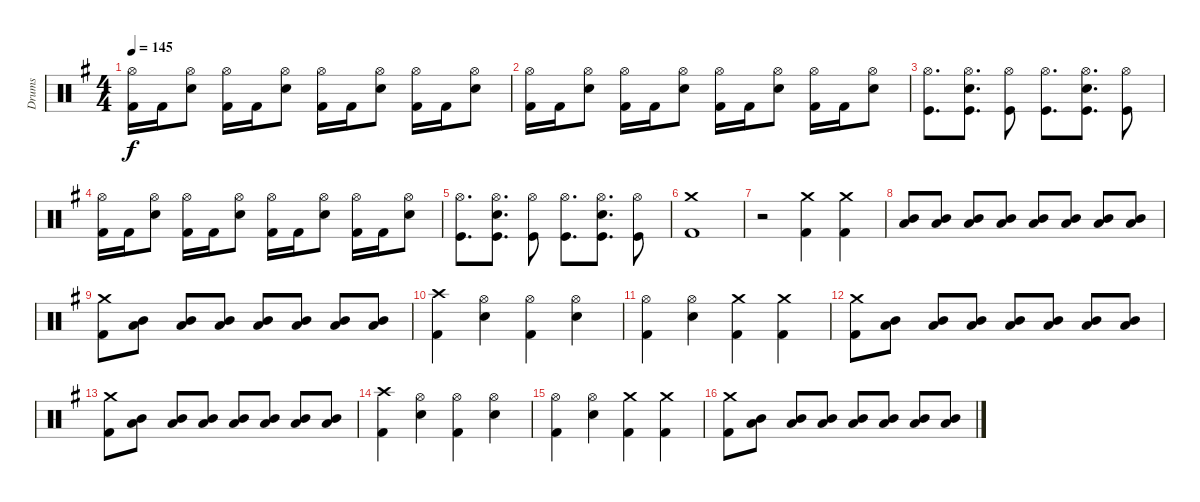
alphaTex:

\track ("Drums" "Drums") {instrument percussion}
\staff {score}
\articulation defaults
\ts (4 4)
\tempo 145
\clef neutral
\ks eminor
("Hi-Hat (open)" "Kick (hit) 2").16{dy f} "Kick (hit) 2".16 ("Hi-Hat (open)" "Electric Snare (hit)").8 ("Hi-Hat (open)" "Kick (hit) 2").16 "Kick (hit) 2".16 ("Electric Snare (hit)" "Hi-Hat (open)").8 ("Kick (hit) 2" "Hi-Hat (open)").16 "Kick (hit) 2".16 ("Hi-Hat (open)" "Electric Snare (hit)").8 ("Hi-Hat (open)" "Kick (hit) 2").16 "Kick (hit) 2".16 ("Hi-Hat (open)" "Electric Snare (hit)").8 |
("Hi-Hat (open)" "Kick (hit) 2").16 "Kick (hit) 2".16 ("Hi-Hat (open)" "Electric Snare (hit)").8 ("Hi-Hat (open)" "Kick (hit) 2").16 "Kick (hit) 2".16 ("Electric Snare (hit)" "Hi-Hat (open)").8 ("Kick (hit) 2" "Hi-Hat (open)").16 "Kick (hit) 2".16 ("Hi-Hat (open)" "Electric Snare (hit)").8 ("Hi-Hat (open)" "Kick (hit) 2").16 "Kick (hit) 2".16 ("Hi-Hat (open)" "Electric Snare (hit)").8 |
("Kick (hit)" "Hi-Hat (open)").8{d} ("Kick (hit)" "Snare (hit) 2" "Hi-Hat (open)").8{d} ("Kick (hit)" "Hi-Hat (open)").8 ("Kick (hit)" "Hi-Hat (open)").8{d} ("Kick (hit)" "Hi-Hat (open)" "Snare (hit) 2").8{d} ("Kick (hit)" "Hi-Hat (open)").8 |
("Hi-Hat (open)" "Kick (hit) 2").16 "Kick (hit) 2".16 ("Hi-Hat (open)" "Electric Snare (hit)").8 ("Hi-Hat (open)" "Kick (hit) 2").16 "Kick (hit) 2".16 ("Electric Snare (hit)" "Hi-Hat (open)").8 ("Kick (hit) 2" "Hi-Hat (open)").16 "Kick (hit) 2".16 ("Hi-Hat (open)" "Electric Snare (hit)").8 ("Hi-Hat (open)" "Kick (hit) 2").16 "Kick (hit) 2".16 ("Hi-Hat (open)" "Electric Snare (hit)").8 |
("Kick (hit)" "Hi-Hat (open)").8{d} ("Kick (hit)" "Snare (hit) 2" "Hi-Hat (open)").8{d} ("Kick (hit)" "Hi-Hat (open)").8 ("Kick (hit)" "Hi-Hat (open)").8{d} ("Kick (hit)" "Hi-Hat (open)" "Snare (hit) 2").8{d} ("Kick (hit)" "Hi-Hat (open)").8 |
("Crash medium (hit)" "Kick (hit) 2").1 |
r.2 ("Crash medium (hit)" "Kick (hit) 2").4 ("Crash medium (hit)" "Kick (hit) 2").4 |
("Low Tom (hit)" "Mid Tom (hit)").8 ("Low Tom (hit)" "Mid Tom (hit)").8 ("Low Tom (hit)" "Mid Tom (hit)").8 ("Low Tom (hit)" "Mid Tom (hit)").8 ("Low Tom (hit)" "Mid Tom (hit)").8 ("Low Tom (hit)" "Mid Tom (hit)").8 ("Low Tom (hit)" "Mid Tom (hit)").8 ("Low Tom (hit)" "Mid Tom (hit)").8 |
("Crash medium (hit)" "Kick (hit) 2").8 ("Low Tom (hit)" "Mid Tom (hit)").8 ("Low Tom (hit)" "Mid Tom (hit)").8 ("Low Tom (hit)" "Mid Tom (hit)").8 ("Low Tom (hit)" "Mid Tom (hit)").8 ("Low Tom (hit)" "Mid Tom (hit)").8 ("Low Tom (hit)" "Mid Tom (hit)").8 ("Low Tom (hit)" "Mid Tom (hit)").8 |
("Crash high (hit)" "Kick (hit) 2").4 ("Hi-Hat (open)" "Electric Snare (hit)").4 ("Hi-Hat (open)" "Kick (hit) 2").4 ("Hi-Hat (open)" "Electric Snare (hit)").4 |
("Hi-Hat (open)" "Kick (hit) 2").4 ("Electric Snare (hit)" "Hi-Hat (open)").4 ("Crash medium (hit)" "Kick (hit) 2").4 ("Crash medium (hit)" "Kick (hit) 2").4 |
("Crash medium (hit)" "Kick (hit) 2").8 ("Low Tom (hit)" "Mid Tom (hit)").8 ("Low Tom (hit)" "Mid Tom (hit)").8 ("Low Tom (hit)" "Mid Tom (hit)").8 ("Low Tom (hit)" "Mid Tom (hit)").8 ("Low Tom (hit)" "Mid Tom (hit)").8 ("Low Tom (hit)" "Mid Tom (hit)").8 ("Low Tom (hit)" "Mid Tom (hit)").8 |
("Crash medium (hit)" "Kick (hit) 2").8 ("Low Tom (hit)" "Mid Tom (hit)").8 ("Low Tom (hit)" "Mid Tom (hit)").8 ("Low Tom (hit)" "Mid Tom (hit)").8 ("Low Tom (hit)" "Mid Tom (hit)").8 ("Low Tom (hit)" "Mid Tom (hit)").8 ("Low Tom (hit)" "Mid Tom (hit)").8 ("Low Tom (hit)" "Mid Tom (hit)").8 |
("Crash high (hit)" "Kick (hit) 2").4 ("Hi-Hat (open)" "Electric Snare (hit)").4 ("Hi-Hat (open)" "Kick (hit) 2").4 ("Hi-Hat (open)" "Electric Snare (hit)").4 |
("Hi-Hat (open)" "Kick (hit) 2").4 ("Electric Snare (hit)" "Hi-Hat (open)").4 ("Crash medium (hit)" "Kick (hit) 2").4 ("Crash medium (hit)" "Kick (hit) 2").4 |
("Crash medium (hit)" "Kick (hit) 2").8 ("Low Tom (hit)" "Mid Tom (hit)").8 ("Low Tom (hit)" "Mid Tom (hit)").8 ("Low Tom (hit)" "Mid Tom (hit)").8 ("Low Tom (hit)" "Mid Tom (hit)").8 ("Low Tom (hit)" "Mid Tom (hit)").8 ("Low Tom (hit)" "Mid Tom (hit)").8 ("Low Tom (hit)" "Mid Tom (hit)").8
